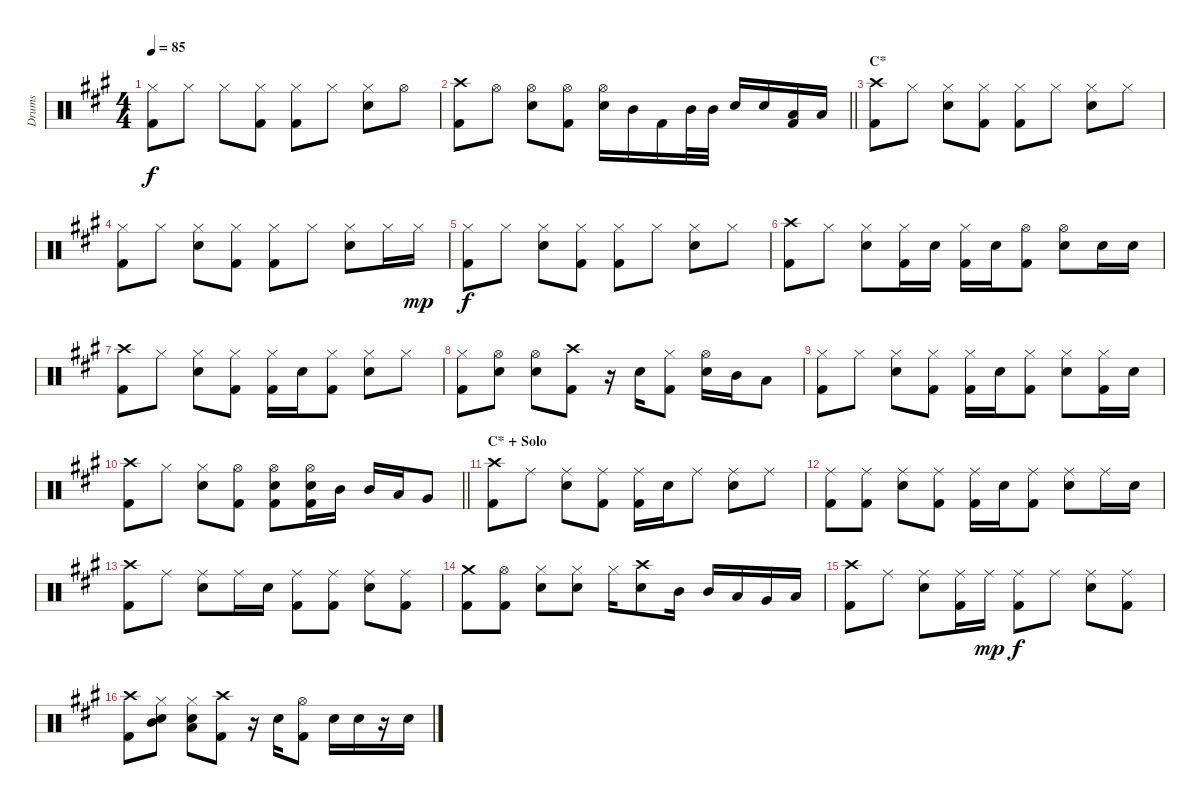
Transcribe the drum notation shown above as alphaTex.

\track ("Drums" "Drums") {instrument percussion}
\staff {score}
\articulation defaults
\ts (4 4)
\tempo 85
\clef neutral
\ks a
("Hi-Hat (closed)" "Kick (hit) 2").8{dy f} "Hi-Hat (closed)".8 "Hi-Hat (closed)".8 ("Hi-Hat (closed)" "Kick (hit) 2").8 ("Hi-Hat (closed)" "Kick (hit) 2").8 "Hi-Hat (closed)".8 ("Hi-Hat (closed)" "Electric Snare (hit)").8 "Hi-Hat (open)".8 |
\barLineRight lightlight
("Crash high (hit)" "Kick (hit) 2").8 "Hi-Hat (open)".8 ("Hi-Hat (open)" "Electric Snare (hit)").8 ("Hi-Hat (open)" "Kick (hit) 2").8 ("Hi-Hat (open)" "Electric Snare (hit)").16 "Mid Tom (hit)".16 "Kick (hit) 2".16 "Mid Tom (hit)".32 "Mid Tom (hit)".32 "Electric Snare (hit)".16 "Electric Snare (hit)".16 ("Low Tom (hit)" "Kick (hit) 2").16 "Low Tom (hit)".16 |
\section ("" "C*")
("Crash high (hit)" "Kick (hit) 2").8 "Hi-Hat (closed)".8 ("Hi-Hat (closed)" "Electric Snare (hit)").8 ("Hi-Hat (closed)" "Kick (hit) 2").8 ("Hi-Hat (closed)" "Kick (hit) 2").8 "Hi-Hat (closed)".8 ("Hi-Hat (closed)" "Electric Snare (hit)").8 "Hi-Hat (closed)".8 |
("Hi-Hat (closed)" "Kick (hit) 2").8 "Hi-Hat (closed)".8 ("Hi-Hat (closed)" "Electric Snare (hit)").8 ("Hi-Hat (closed)" "Kick (hit) 2").8 ("Hi-Hat (closed)" "Kick (hit) 2").8 "Hi-Hat (closed)".8 ("Hi-Hat (closed)" "Electric Snare (hit)").8 "Hi-Hat (closed)".16 "Hi-Hat (closed)".16{dy mp} |
("Hi-Hat (closed)" "Kick (hit) 2").8{dy f} "Hi-Hat (closed)".8 ("Hi-Hat (closed)" "Electric Snare (hit)").8 ("Hi-Hat (closed)" "Kick (hit) 2").8 ("Hi-Hat (closed)" "Kick (hit) 2").8 "Hi-Hat (closed)".8 ("Hi-Hat (closed)" "Electric Snare (hit)").8 "Hi-Hat (closed)".8 |
("Crash high (hit)" "Kick (hit) 2").8 "Hi-Hat (closed)".8 ("Hi-Hat (closed)" "Electric Snare (hit)").8 ("Hi-Hat (closed)" "Kick (hit) 2").16 "Electric Snare (hit)".16 ("Hi-Hat (closed)" "Kick (hit) 2").16 "Electric Snare (hit)".16 ("Hi-Hat (open)" "Kick (hit) 2").8 ("Hi-Hat (open)" "Electric Snare (hit)").8 "Electric Snare (hit)".16 "Electric Snare (hit)".16 |
("Crash high (hit)" "Kick (hit) 2").8 "Hi-Hat (closed)".8 ("Hi-Hat (closed)" "Electric Snare (hit)").8 ("Hi-Hat (closed)" "Kick (hit) 2").8 ("Hi-Hat (closed)" "Kick (hit) 2").16 "Electric Snare (hit)".16 ("Hi-Hat (closed)" "Kick (hit) 2").8 ("Hi-Hat (closed)" "Electric Snare (hit)").8 "Hi-Hat (closed)".8 |
("Hi-Hat (closed)" "Kick (hit) 2").8 ("Hi-Hat (open)" "Electric Snare (hit)").8 ("Hi-Hat (open)" "Electric Snare (hit)").8 ("Crash high (hit)" "Kick (hit) 2").8 r.16 "Electric Snare (hit)".16 ("Hi-Hat (closed)" "Kick (hit) 2").8 ("Hi-Hat (open)" "Electric Snare (hit)").16 "Mid Tom (hit)".16 "Low Tom (hit)".8 |
("Hi-Hat (closed)" "Kick (hit) 2").8 "Hi-Hat (closed)".8 ("Hi-Hat (closed)" "Electric Snare (hit)").8 ("Hi-Hat (closed)" "Kick (hit) 2").8 ("Hi-Hat (closed)" "Kick (hit) 2").16 "Electric Snare (hit)".16 ("Hi-Hat (closed)" "Kick (hit) 2").8 ("Hi-Hat (closed)" "Electric Snare (hit)").8 ("Hi-Hat (closed)" "Kick (hit) 2").16 "Electric Snare (hit)".16 |
\barLineRight lightlight
("Crash high (hit)" "Kick (hit) 2").8 "Hi-Hat (closed)".8 ("Hi-Hat (closed)" "Electric Snare (hit)").8 ("Hi-Hat (open)" "Kick (hit) 2").8 ("Hi-Hat (open)" "Electric Snare (hit)" "Kick (hit) 2").8 ("Hi-Hat (open)" "Electric Snare (hit)" "Kick (hit) 2").16 "Mid Tom (hit)".16 "Mid Tom (hit)".16 "Low Tom (hit)".16 "Very Low Tom (hit)".8 |
\section ("" "C* + Solo")
("Crash high (hit)" "Kick (hit) 2").8 "Ride (middle)".8 ("Ride (middle)" "Electric Snare (hit)").8 ("Ride (middle)" "Kick (hit) 2").8 ("Ride (middle)" "Kick (hit) 2").16 "Electric Snare (hit)".16 "Ride (middle)".8 ("Ride (middle)" "Electric Snare (hit)").8 "Ride (middle)".8 |
("Ride (middle)" "Kick (hit) 2").8 ("Ride (middle)" "Kick (hit) 2").8 ("Ride (middle)" "Electric Snare (hit)").8 ("Ride (middle)" "Kick (hit) 2").8 ("Ride (middle)" "Kick (hit) 2").16 "Electric Snare (hit)".16 ("Ride (middle)" "Kick (hit) 2").8 ("Ride (middle)" "Electric Snare (hit)").8 "Ride (middle)".16 "Electric Snare (hit)".16 |
("Crash high (hit)" "Kick (hit) 2").8 "Ride (middle)".8 ("Ride (middle)" "Electric Snare (hit)").8 "Ride (middle)".16 "Electric Snare (hit)".16 ("Ride (middle)" "Kick (hit) 2").8 ("Ride (middle)" "Kick (hit) 2").8 ("Ride (middle)" "Electric Snare (hit)").8 ("Ride (middle)" "Kick (hit) 2").8 |
("Crash medium (hit)" "Kick (hit) 2").8 ("Hi-Hat (open)" "Kick (hit) 2").8 ("Hi-Hat (closed)" "Electric Snare (hit)").8 ("Hi-Hat (closed)" "Electric Snare (hit)").8 "Hi-Hat (closed)".16 ("Crash high (hit)" "Electric Snare (hit)").8 "Mid Tom (hit)".16 "Mid Tom (hit)".16 "Low Tom (hit)".16 "Very Low Tom (hit)".16 "Low Floor Tom (hit)".16 |
("Crash high (hit)" "Kick (hit) 2").8 "Ride (middle)".8 ("Ride (middle)" "Electric Snare (hit)").8 ("Ride (middle)" "Kick (hit) 2").16 "Ride (middle)".16{dy mp} ("Ride (middle)" "Kick (hit) 2").8{dy f} "Ride (middle)".8 ("Ride (middle)" "Electric Snare (hit)").8 ("Ride (middle)" "Kick (hit) 2").8 |
("Crash high (hit)" "Kick (hit) 2").8 ("Hi-Hat (closed)" "Mid Tom (hit)" "Electric Snare (hit)").8 ("Hi-Hat (closed)" "Low Tom (hit)" "Electric Snare (hit)").8 ("Crash high (hit)" "Kick (hit) 2").8 r.16 "Electric Snare (hit)".16 ("Hi-Hat (open)" "Kick (hit) 2").8 "Electric Snare (hit)".16 "Electric Snare (hit)".16 r.16 "Electric Snare (hit)".16
